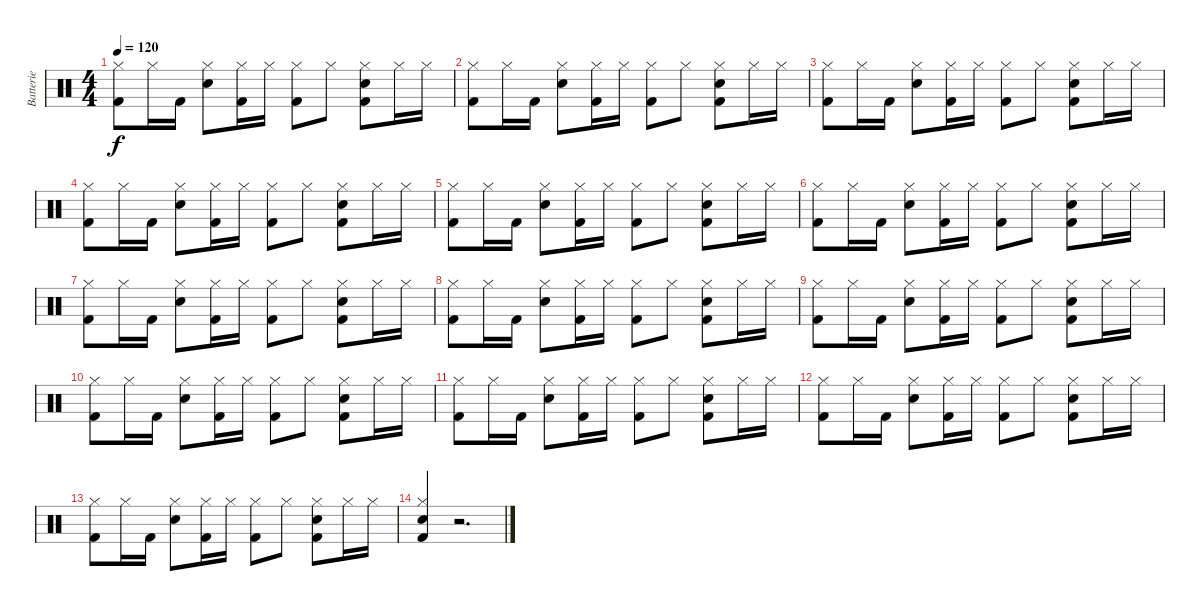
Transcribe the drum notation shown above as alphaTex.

\track ("Batterie" "Batterie") {instrument percussion}
\staff {score}
\articulation defaults
\ts (4 4)
\tempo 120
\clef neutral
\ks c
("Kick (hit) 2" "Hi-Hat (closed)").8{dy f} "Hi-Hat (closed)".16 "Kick (hit) 2".16 ("Electric Snare (hit)" "Hi-Hat (closed)").8 ("Kick (hit) 2" "Hi-Hat (closed)").16 "Hi-Hat (closed)".16 ("Kick (hit) 2" "Hi-Hat (closed)").8 "Hi-Hat (closed)".8 ("Kick (hit) 2" "Electric Snare (hit)" "Hi-Hat (closed)").8 "Hi-Hat (closed)".16 "Hi-Hat (closed)".16 |
("Kick (hit) 2" "Hi-Hat (closed)").8 "Hi-Hat (closed)".16 "Kick (hit) 2".16 ("Electric Snare (hit)" "Hi-Hat (closed)").8 ("Kick (hit) 2" "Hi-Hat (closed)").16 "Hi-Hat (closed)".16 ("Kick (hit) 2" "Hi-Hat (closed)").8 "Hi-Hat (closed)".8 ("Kick (hit) 2" "Electric Snare (hit)" "Hi-Hat (closed)").8 "Hi-Hat (closed)".16 "Hi-Hat (closed)".16 |
("Kick (hit) 2" "Hi-Hat (closed)").8 "Hi-Hat (closed)".16 "Kick (hit) 2".16 ("Electric Snare (hit)" "Hi-Hat (closed)").8 ("Kick (hit) 2" "Hi-Hat (closed)").16 "Hi-Hat (closed)".16 ("Kick (hit) 2" "Hi-Hat (closed)").8 "Hi-Hat (closed)".8 ("Kick (hit) 2" "Electric Snare (hit)" "Hi-Hat (closed)").8 "Hi-Hat (closed)".16 "Hi-Hat (closed)".16 |
("Kick (hit) 2" "Hi-Hat (closed)").8 "Hi-Hat (closed)".16 "Kick (hit) 2".16 ("Electric Snare (hit)" "Hi-Hat (closed)").8 ("Kick (hit) 2" "Hi-Hat (closed)").16 "Hi-Hat (closed)".16 ("Kick (hit) 2" "Hi-Hat (closed)").8 "Hi-Hat (closed)".8 ("Kick (hit) 2" "Electric Snare (hit)" "Hi-Hat (closed)").8 "Hi-Hat (closed)".16 "Hi-Hat (closed)".16 |
("Kick (hit) 2" "Hi-Hat (closed)").8 "Hi-Hat (closed)".16 "Kick (hit) 2".16 ("Electric Snare (hit)" "Hi-Hat (closed)").8 ("Kick (hit) 2" "Hi-Hat (closed)").16 "Hi-Hat (closed)".16 ("Kick (hit) 2" "Hi-Hat (closed)").8 "Hi-Hat (closed)".8 ("Kick (hit) 2" "Electric Snare (hit)" "Hi-Hat (closed)").8 "Hi-Hat (closed)".16 "Hi-Hat (closed)".16 |
("Kick (hit) 2" "Hi-Hat (closed)").8 "Hi-Hat (closed)".16 "Kick (hit) 2".16 ("Electric Snare (hit)" "Hi-Hat (closed)").8 ("Kick (hit) 2" "Hi-Hat (closed)").16 "Hi-Hat (closed)".16 ("Kick (hit) 2" "Hi-Hat (closed)").8 "Hi-Hat (closed)".8 ("Kick (hit) 2" "Electric Snare (hit)" "Hi-Hat (closed)").8 "Hi-Hat (closed)".16 "Hi-Hat (closed)".16 |
("Kick (hit) 2" "Hi-Hat (closed)").8 "Hi-Hat (closed)".16 "Kick (hit) 2".16 ("Electric Snare (hit)" "Hi-Hat (closed)").8 ("Kick (hit) 2" "Hi-Hat (closed)").16 "Hi-Hat (closed)".16 ("Kick (hit) 2" "Hi-Hat (closed)").8 "Hi-Hat (closed)".8 ("Kick (hit) 2" "Electric Snare (hit)" "Hi-Hat (closed)").8 "Hi-Hat (closed)".16 "Hi-Hat (closed)".16 |
("Kick (hit) 2" "Hi-Hat (closed)").8 "Hi-Hat (closed)".16 "Kick (hit) 2".16 ("Electric Snare (hit)" "Hi-Hat (closed)").8 ("Kick (hit) 2" "Hi-Hat (closed)").16 "Hi-Hat (closed)".16 ("Kick (hit) 2" "Hi-Hat (closed)").8 "Hi-Hat (closed)".8 ("Kick (hit) 2" "Electric Snare (hit)" "Hi-Hat (closed)").8 "Hi-Hat (closed)".16 "Hi-Hat (closed)".16 |
("Kick (hit) 2" "Hi-Hat (closed)").8 "Hi-Hat (closed)".16 "Kick (hit) 2".16 ("Electric Snare (hit)" "Hi-Hat (closed)").8 ("Kick (hit) 2" "Hi-Hat (closed)").16 "Hi-Hat (closed)".16 ("Kick (hit) 2" "Hi-Hat (closed)").8 "Hi-Hat (closed)".8 ("Kick (hit) 2" "Electric Snare (hit)" "Hi-Hat (closed)").8 "Hi-Hat (closed)".16 "Hi-Hat (closed)".16 |
("Kick (hit) 2" "Hi-Hat (closed)").8 "Hi-Hat (closed)".16 "Kick (hit) 2".16 ("Electric Snare (hit)" "Hi-Hat (closed)").8 ("Kick (hit) 2" "Hi-Hat (closed)").16 "Hi-Hat (closed)".16 ("Kick (hit) 2" "Hi-Hat (closed)").8 "Hi-Hat (closed)".8 ("Kick (hit) 2" "Electric Snare (hit)" "Hi-Hat (closed)").8 "Hi-Hat (closed)".16 "Hi-Hat (closed)".16 |
("Kick (hit) 2" "Hi-Hat (closed)").8 "Hi-Hat (closed)".16 "Kick (hit) 2".16 ("Electric Snare (hit)" "Hi-Hat (closed)").8 ("Kick (hit) 2" "Hi-Hat (closed)").16 "Hi-Hat (closed)".16 ("Kick (hit) 2" "Hi-Hat (closed)").8 "Hi-Hat (closed)".8 ("Kick (hit) 2" "Electric Snare (hit)" "Hi-Hat (closed)").8 "Hi-Hat (closed)".16 "Hi-Hat (closed)".16 |
("Kick (hit) 2" "Hi-Hat (closed)").8 "Hi-Hat (closed)".16 "Kick (hit) 2".16 ("Electric Snare (hit)" "Hi-Hat (closed)").8 ("Kick (hit) 2" "Hi-Hat (closed)").16 "Hi-Hat (closed)".16 ("Kick (hit) 2" "Hi-Hat (closed)").8 "Hi-Hat (closed)".8 ("Kick (hit) 2" "Electric Snare (hit)" "Hi-Hat (closed)").8 "Hi-Hat (closed)".16 "Hi-Hat (closed)".16 |
("Kick (hit) 2" "Hi-Hat (closed)").8 "Hi-Hat (closed)".16 "Kick (hit) 2".16 ("Electric Snare (hit)" "Hi-Hat (closed)").8 ("Kick (hit) 2" "Hi-Hat (closed)").16 "Hi-Hat (closed)".16 ("Kick (hit) 2" "Hi-Hat (closed)").8 "Hi-Hat (closed)".8 ("Kick (hit) 2" "Electric Snare (hit)" "Hi-Hat (closed)").8 "Hi-Hat (closed)".16 "Hi-Hat (closed)".16 |
("Kick (hit) 2" "Electric Snare (hit)" "Hi-Hat (closed)").4 r.2{d}
